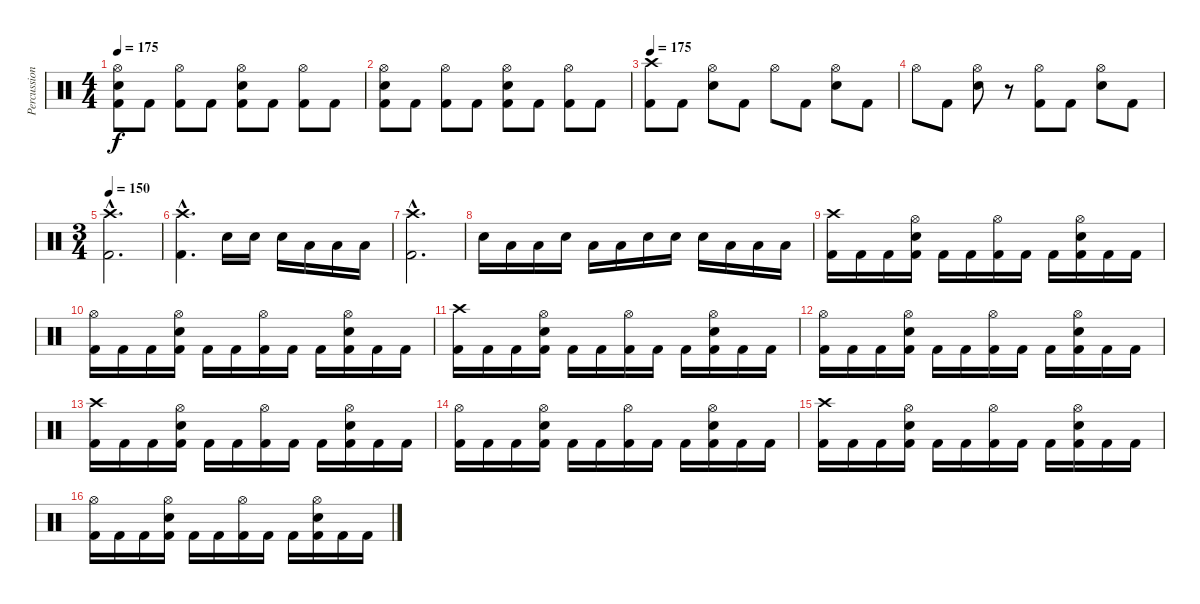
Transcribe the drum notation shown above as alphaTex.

\track ("Percussion" "Percussion") {instrument percussion}
\staff {score}
\articulation defaults
\ts (4 4)
\tempo 175
\clef neutral
\ks c
("Hi-Hat (open)" "Electric Snare (hit)" "Kick (hit) 2").8{dy f} "Kick (hit) 2".8 ("Hi-Hat (open)" "Kick (hit) 2").8 "Kick (hit) 2".8 ("Hi-Hat (open)" "Electric Snare (hit)" "Kick (hit) 2").8 "Kick (hit) 2".8 ("Hi-Hat (open)" "Kick (hit) 2").8 "Kick (hit) 2".8 |
("Hi-Hat (open)" "Electric Snare (hit)" "Kick (hit) 2").8 "Kick (hit) 2".8 ("Hi-Hat (open)" "Kick (hit) 2").8 "Kick (hit) 2".8 ("Hi-Hat (open)" "Electric Snare (hit)" "Kick (hit) 2").8 "Kick (hit) 2".8 ("Hi-Hat (open)" "Kick (hit) 2").8 "Kick (hit) 2".8 |
\tempo 175
("Crash high (hit)" "Kick (hit) 2").8 "Kick (hit) 2".8 ("Hi-Hat (open)" "Electric Snare (hit)").8 "Kick (hit) 2".8 "Hi-Hat (open)".8 "Kick (hit) 2".8 ("Hi-Hat (open)" "Electric Snare (hit)").8 "Kick (hit) 2".8 |
"Hi-Hat (open)".8 "Kick (hit) 2".8 ("Hi-Hat (open)" "Electric Snare (hit)").8 r.8 ("Hi-Hat (open)" "Kick (hit) 2").8 "Kick (hit) 2".8 ("Hi-Hat (open)" "Electric Snare (hit)").8 "Kick (hit) 2".8 |
\ts (3 4)
\tempo 150
("Crash high (hit)"{hac} "Kick (hit) 2"{hac}).2{d} |
("Crash high (hit)"{hac} "Kick (hit) 2"{hac}).4{d} "Electric Snare (hit)".16 "Electric Snare (hit)".16 "Electric Snare (hit)".16 "Low Tom (hit)".16 "Low Tom (hit)".16 "Low Tom (hit)".16 |
("Crash high (hit)"{hac} "Kick (hit) 2"{hac}).2{d} |
"Electric Snare (hit)".16 "Low Tom (hit)".16 "Low Tom (hit)".16 "Electric Snare (hit)".16 "Low Tom (hit)".16 "Low Tom (hit)".16 "Electric Snare (hit)".16 "Electric Snare (hit)".16 "Electric Snare (hit)".16 "Low Tom (hit)".16 "Low Tom (hit)".16 "Low Tom (hit)".16 |
("Crash high (hit)" "Kick (hit) 2").16 "Kick (hit) 2".16 "Kick (hit) 2".16 ("Hi-Hat (open)" "Electric Snare (hit)" "Kick (hit) 2").16 "Kick (hit) 2".16 "Kick (hit) 2".16 ("Hi-Hat (open)" "Kick (hit) 2").16 "Kick (hit) 2".16 "Kick (hit) 2".16 ("Hi-Hat (open)" "Electric Snare (hit)" "Kick (hit) 2").16 "Kick (hit) 2".16 "Kick (hit) 2".16 |
("Hi-Hat (open)" "Kick (hit) 2").16 "Kick (hit) 2".16 "Kick (hit) 2".16 ("Hi-Hat (open)" "Electric Snare (hit)" "Kick (hit) 2").16 "Kick (hit) 2".16 "Kick (hit) 2".16 ("Hi-Hat (open)" "Kick (hit) 2").16 "Kick (hit) 2".16 "Kick (hit) 2".16 ("Hi-Hat (open)" "Electric Snare (hit)" "Kick (hit) 2").16 "Kick (hit) 2".16 "Kick (hit) 2".16 |
("Crash high (hit)" "Kick (hit) 2").16 "Kick (hit) 2".16 "Kick (hit) 2".16 ("Hi-Hat (open)" "Electric Snare (hit)" "Kick (hit) 2").16 "Kick (hit) 2".16 "Kick (hit) 2".16 ("Hi-Hat (open)" "Kick (hit) 2").16 "Kick (hit) 2".16 "Kick (hit) 2".16 ("Hi-Hat (open)" "Electric Snare (hit)" "Kick (hit) 2").16 "Kick (hit) 2".16 "Kick (hit) 2".16 |
("Hi-Hat (open)" "Kick (hit) 2").16 "Kick (hit) 2".16 "Kick (hit) 2".16 ("Hi-Hat (open)" "Electric Snare (hit)" "Kick (hit) 2").16 "Kick (hit) 2".16 "Kick (hit) 2".16 ("Hi-Hat (open)" "Kick (hit) 2").16 "Kick (hit) 2".16 "Kick (hit) 2".16 ("Hi-Hat (open)" "Electric Snare (hit)" "Kick (hit) 2").16 "Kick (hit) 2".16 "Kick (hit) 2".16 |
("Crash high (hit)" "Kick (hit) 2").16 "Kick (hit) 2".16 "Kick (hit) 2".16 ("Hi-Hat (open)" "Electric Snare (hit)" "Kick (hit) 2").16 "Kick (hit) 2".16 "Kick (hit) 2".16 ("Hi-Hat (open)" "Kick (hit) 2").16 "Kick (hit) 2".16 "Kick (hit) 2".16 ("Hi-Hat (open)" "Electric Snare (hit)" "Kick (hit) 2").16 "Kick (hit) 2".16 "Kick (hit) 2".16 |
("Hi-Hat (open)" "Kick (hit) 2").16 "Kick (hit) 2".16 "Kick (hit) 2".16 ("Hi-Hat (open)" "Electric Snare (hit)" "Kick (hit) 2").16 "Kick (hit) 2".16 "Kick (hit) 2".16 ("Hi-Hat (open)" "Kick (hit) 2").16 "Kick (hit) 2".16 "Kick (hit) 2".16 ("Hi-Hat (open)" "Electric Snare (hit)" "Kick (hit) 2").16 "Kick (hit) 2".16 "Kick (hit) 2".16 |
("Crash high (hit)" "Kick (hit) 2").16 "Kick (hit) 2".16 "Kick (hit) 2".16 ("Hi-Hat (open)" "Electric Snare (hit)" "Kick (hit) 2").16 "Kick (hit) 2".16 "Kick (hit) 2".16 ("Hi-Hat (open)" "Kick (hit) 2").16 "Kick (hit) 2".16 "Kick (hit) 2".16 ("Hi-Hat (open)" "Electric Snare (hit)" "Kick (hit) 2").16 "Kick (hit) 2".16 "Kick (hit) 2".16 |
("Hi-Hat (open)" "Kick (hit) 2").16 "Kick (hit) 2".16 "Kick (hit) 2".16 ("Hi-Hat (open)" "Electric Snare (hit)" "Kick (hit) 2").16 "Kick (hit) 2".16 "Kick (hit) 2".16 ("Hi-Hat (open)" "Kick (hit) 2").16 "Kick (hit) 2".16 "Kick (hit) 2".16 ("Hi-Hat (open)" "Electric Snare (hit)" "Kick (hit) 2").16 "Kick (hit) 2".16 "Kick (hit) 2".16
